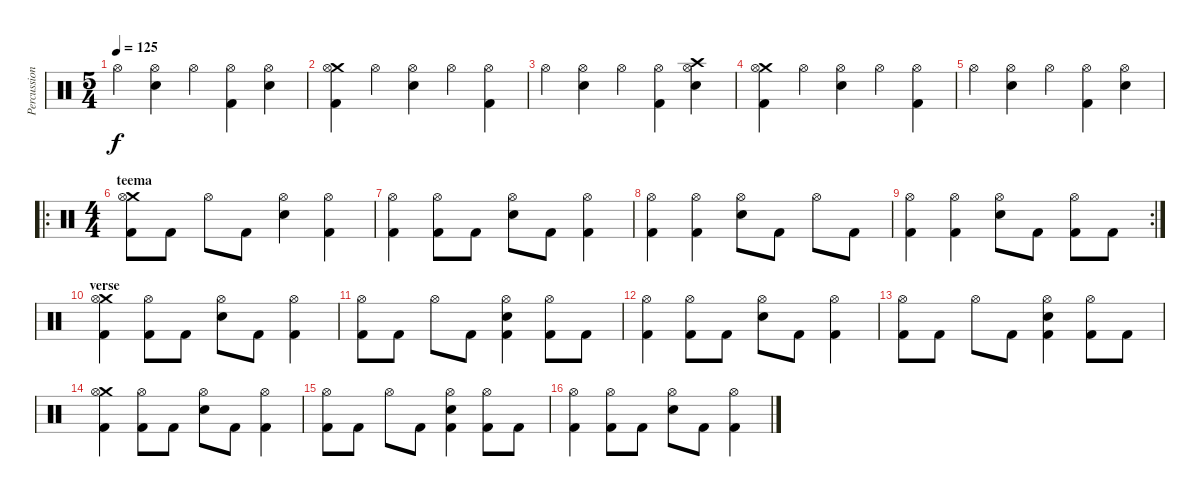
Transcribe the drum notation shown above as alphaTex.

\track ("Percussion" "Percussion") {instrument percussion}
\staff {score}
\articulation defaults
\ts (5 4)
\tempo 125
\clef neutral
\ks c "Hi-Hat (open)".4{dy f}
("Hi-Hat (open)" "Electric Snare (hit)").4 "Hi-Hat (open)".4 ("Hi-Hat (open)" "Kick (hit) 2").4 ("Hi-Hat (open)" "Electric Snare (hit)").4 |
("Crash medium (hit)" "Hi-Hat (open)" "Kick (hit) 2").4 "Hi-Hat (open)".4 ("Hi-Hat (open)" "Electric Snare (hit)").4 "Hi-Hat (open)".4 ("Hi-Hat (open)" "Kick (hit) 2").4 |
"Hi-Hat (open)".4 ("Hi-Hat (open)" "Electric Snare (hit)").4 "Hi-Hat (open)".4 ("Hi-Hat (open)" "Kick (hit) 2").4 ("Crash high (hit)" "Hi-Hat (open)" "Electric Snare (hit)").4 |
("Crash medium (hit)" "Hi-Hat (open)" "Kick (hit) 2").4 "Hi-Hat (open)".4 ("Hi-Hat (open)" "Electric Snare (hit)").4 "Hi-Hat (open)".4 ("Hi-Hat (open)" "Kick (hit) 2").4 |
"Hi-Hat (open)".4 ("Hi-Hat (open)" "Electric Snare (hit)").4 "Hi-Hat (open)".4 ("Hi-Hat (open)" "Kick (hit) 2").4 ("Hi-Hat (open)" "Electric Snare (hit)").4 |
\ro
\ts (4 4)
\section ("" "teema")
("Crash medium (hit)" "Hi-Hat (open)" "Kick (hit) 2").8 "Kick (hit) 2".8 "Hi-Hat (open)".8 "Kick (hit) 2".8 ("Hi-Hat (open)" "Electric Snare (hit)").4 ("Hi-Hat (open)" "Kick (hit) 2").4 |
("Hi-Hat (open)" "Kick (hit) 2").4 ("Hi-Hat (open)" "Kick (hit) 2").8 "Kick (hit) 2".8 ("Hi-Hat (open)" "Electric Snare (hit)").8 "Kick (hit) 2".8 ("Hi-Hat (open)" "Kick (hit) 2").4 |
("Hi-Hat (open)" "Kick (hit) 2").4 ("Hi-Hat (open)" "Kick (hit) 2").4 ("Hi-Hat (open)" "Electric Snare (hit)").8 "Kick (hit) 2".8 "Hi-Hat (open)".8 "Kick (hit) 2".8 |
\rc 2
("Hi-Hat (open)" "Kick (hit) 2").4 ("Hi-Hat (open)" "Kick (hit) 2").4 ("Hi-Hat (open)" "Electric Snare (hit)").8 "Kick (hit) 2".8 ("Hi-Hat (open)" "Kick (hit) 2").8 "Kick (hit) 2".8 |
\section ("" "verse")
("Crash medium (hit)" "Hi-Hat (open)" "Kick (hit) 2").4 ("Hi-Hat (open)" "Kick (hit) 2").8 "Kick (hit) 2".8 ("Hi-Hat (open)" "Electric Snare (hit)").8 "Kick (hit) 2".8 ("Hi-Hat (open)" "Kick (hit) 2").4 |
("Hi-Hat (open)" "Kick (hit) 2").8 "Kick (hit) 2".8 "Hi-Hat (open)".8 "Kick (hit) 2".8 ("Hi-Hat (open)" "Electric Snare (hit)" "Kick (hit) 2").4 ("Hi-Hat (open)" "Kick (hit) 2").8 "Kick (hit) 2".8 |
("Hi-Hat (open)" "Kick (hit) 2").4 ("Hi-Hat (open)" "Kick (hit) 2").8 "Kick (hit) 2".8 ("Hi-Hat (open)" "Electric Snare (hit)").8 "Kick (hit) 2".8 ("Hi-Hat (open)" "Kick (hit) 2").4 |
("Hi-Hat (open)" "Kick (hit) 2").8 "Kick (hit) 2".8 "Hi-Hat (open)".8 "Kick (hit) 2".8 ("Hi-Hat (open)" "Electric Snare (hit)" "Kick (hit) 2").4 ("Hi-Hat (open)" "Kick (hit) 2").8 "Kick (hit) 2".8 |
("Crash medium (hit)" "Hi-Hat (open)" "Kick (hit) 2").4 ("Hi-Hat (open)" "Kick (hit) 2").8 "Kick (hit) 2".8 ("Hi-Hat (open)" "Electric Snare (hit)").8 "Kick (hit) 2".8 ("Hi-Hat (open)" "Kick (hit) 2").4 |
("Hi-Hat (open)" "Kick (hit) 2").8 "Kick (hit) 2".8 "Hi-Hat (open)".8 "Kick (hit) 2".8 ("Hi-Hat (open)" "Electric Snare (hit)" "Kick (hit) 2").4 ("Hi-Hat (open)" "Kick (hit) 2").8 "Kick (hit) 2".8 |
("Hi-Hat (open)" "Kick (hit) 2").4 ("Hi-Hat (open)" "Kick (hit) 2").8 "Kick (hit) 2".8 ("Hi-Hat (open)" "Electric Snare (hit)").8 "Kick (hit) 2".8 ("Hi-Hat (open)" "Kick (hit) 2").4
